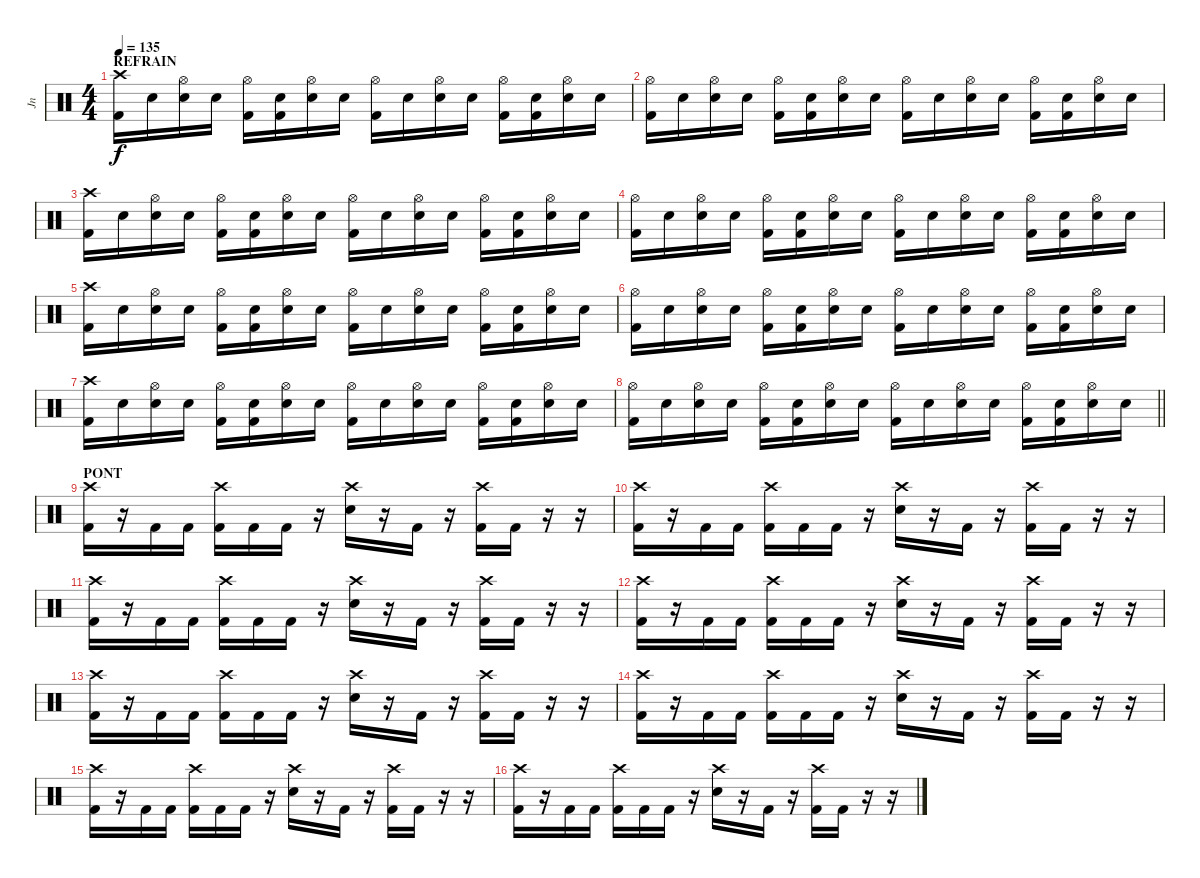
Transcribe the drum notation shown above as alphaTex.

\track ("Jn" "Jn") {instrument percussion}
\staff {score}
\articulation defaults
\ts (4 4)
\section ("" "REFRAIN")
\tempo 135
\clef neutral
\ks c
("Crash high (hit)" "Kick (hit) 2").16{dy f} "Snare (hit)".16 ("Hi-Hat (open)" "Electric Snare (hit)").16 "Snare (hit)".16 ("Hi-Hat (open)" "Kick (hit) 2").16 ("Snare (hit)" "Kick (hit) 2").16 ("Hi-Hat (open)" "Electric Snare (hit)").16 "Snare (hit)".16 ("Hi-Hat (open)" "Kick (hit) 2").16 "Snare (hit)".16 ("Hi-Hat (open)" "Electric Snare (hit)").16 "Snare (hit)".16 ("Hi-Hat (open)" "Kick (hit) 2").16 ("Snare (hit)" "Kick (hit) 2").16 ("Hi-Hat (open)" "Electric Snare (hit)").16 "Snare (hit)".16 |
("Hi-Hat (open)" "Kick (hit) 2").16 "Snare (hit)".16 ("Hi-Hat (open)" "Electric Snare (hit)").16 "Snare (hit)".16 ("Hi-Hat (open)" "Kick (hit) 2").16 ("Snare (hit)" "Kick (hit) 2").16 ("Hi-Hat (open)" "Electric Snare (hit)").16 "Snare (hit)".16 ("Hi-Hat (open)" "Kick (hit) 2").16 "Snare (hit)".16 ("Hi-Hat (open)" "Electric Snare (hit)").16 "Snare (hit)".16 ("Hi-Hat (open)" "Kick (hit) 2").16 ("Snare (hit)" "Kick (hit) 2").16 ("Hi-Hat (open)" "Electric Snare (hit)").16 "Snare (hit)".16 |
("Crash high (hit)" "Kick (hit) 2").16 "Snare (hit)".16 ("Hi-Hat (open)" "Electric Snare (hit)").16 "Snare (hit)".16 ("Hi-Hat (open)" "Kick (hit) 2").16 ("Snare (hit)" "Kick (hit) 2").16 ("Hi-Hat (open)" "Electric Snare (hit)").16 "Snare (hit)".16 ("Hi-Hat (open)" "Kick (hit) 2").16 "Snare (hit)".16 ("Hi-Hat (open)" "Electric Snare (hit)").16 "Snare (hit)".16 ("Hi-Hat (open)" "Kick (hit) 2").16 ("Snare (hit)" "Kick (hit) 2").16 ("Hi-Hat (open)" "Electric Snare (hit)").16 "Snare (hit)".16 |
("Hi-Hat (open)" "Kick (hit) 2").16 "Snare (hit)".16 ("Hi-Hat (open)" "Electric Snare (hit)").16 "Snare (hit)".16 ("Hi-Hat (open)" "Kick (hit) 2").16 ("Snare (hit)" "Kick (hit) 2").16 ("Hi-Hat (open)" "Electric Snare (hit)").16 "Snare (hit)".16 ("Hi-Hat (open)" "Kick (hit) 2").16 "Snare (hit)".16 ("Hi-Hat (open)" "Electric Snare (hit)").16 "Snare (hit)".16 ("Hi-Hat (open)" "Kick (hit) 2").16 ("Snare (hit)" "Kick (hit) 2").16 ("Hi-Hat (open)" "Electric Snare (hit)").16 "Snare (hit)".16 |
("Crash high (hit)" "Kick (hit) 2").16 "Snare (hit)".16 ("Hi-Hat (open)" "Electric Snare (hit)").16 "Snare (hit)".16 ("Hi-Hat (open)" "Kick (hit) 2").16 ("Snare (hit)" "Kick (hit) 2").16 ("Hi-Hat (open)" "Electric Snare (hit)").16 "Snare (hit)".16 ("Hi-Hat (open)" "Kick (hit) 2").16 "Snare (hit)".16 ("Hi-Hat (open)" "Electric Snare (hit)").16 "Snare (hit)".16 ("Hi-Hat (open)" "Kick (hit) 2").16 ("Snare (hit)" "Kick (hit) 2").16 ("Hi-Hat (open)" "Electric Snare (hit)").16 "Snare (hit)".16 |
("Hi-Hat (open)" "Kick (hit) 2").16 "Snare (hit)".16 ("Hi-Hat (open)" "Electric Snare (hit)").16 "Snare (hit)".16 ("Hi-Hat (open)" "Kick (hit) 2").16 ("Snare (hit)" "Kick (hit) 2").16 ("Hi-Hat (open)" "Electric Snare (hit)").16 "Snare (hit)".16 ("Hi-Hat (open)" "Kick (hit) 2").16 "Snare (hit)".16 ("Hi-Hat (open)" "Electric Snare (hit)").16 "Snare (hit)".16 ("Hi-Hat (open)" "Kick (hit) 2").16 ("Snare (hit)" "Kick (hit) 2").16 ("Hi-Hat (open)" "Electric Snare (hit)").16 "Snare (hit)".16 |
("Crash high (hit)" "Kick (hit) 2").16 "Snare (hit)".16 ("Hi-Hat (open)" "Electric Snare (hit)").16 "Snare (hit)".16 ("Hi-Hat (open)" "Kick (hit) 2").16 ("Snare (hit)" "Kick (hit) 2").16 ("Hi-Hat (open)" "Electric Snare (hit)").16 "Snare (hit)".16 ("Hi-Hat (open)" "Kick (hit) 2").16 "Snare (hit)".16 ("Hi-Hat (open)" "Electric Snare (hit)").16 "Snare (hit)".16 ("Hi-Hat (open)" "Kick (hit) 2").16 ("Snare (hit)" "Kick (hit) 2").16 ("Hi-Hat (open)" "Electric Snare (hit)").16 "Snare (hit)".16 |
\barLineRight lightlight
("Hi-Hat (open)" "Kick (hit) 2").16 "Snare (hit)".16 ("Hi-Hat (open)" "Electric Snare (hit)").16 "Snare (hit)".16 ("Hi-Hat (open)" "Kick (hit) 2").16 ("Snare (hit)" "Kick (hit) 2").16 ("Hi-Hat (open)" "Electric Snare (hit)").16 "Snare (hit)".16 ("Hi-Hat (open)" "Kick (hit) 2").16 "Snare (hit)".16 ("Hi-Hat (open)" "Electric Snare (hit)").16 "Snare (hit)".16 ("Hi-Hat (open)" "Kick (hit) 2").16 ("Snare (hit)" "Kick (hit) 2").16 ("Hi-Hat (open)" "Electric Snare (hit)").16 "Snare (hit)".16 |
\section ("" "PONT")
("Crash high (hit)" "Kick (hit) 2").16 r.16 "Kick (hit) 2".16 "Kick (hit) 2".16 ("Crash high (hit)" "Kick (hit) 2").16 "Kick (hit) 2".16 "Kick (hit) 2".16 r.16 ("Crash high (hit)" "Electric Snare (hit)").16 r.16 "Kick (hit) 2".16 r.16 ("Crash high (hit)" "Kick (hit) 2").16 "Kick (hit) 2".16 r.16 r.16 |
("Crash high (hit)" "Kick (hit) 2").16 r.16 "Kick (hit) 2".16 "Kick (hit) 2".16 ("Crash high (hit)" "Kick (hit) 2").16 "Kick (hit) 2".16 "Kick (hit) 2".16 r.16 ("Crash high (hit)" "Electric Snare (hit)").16 r.16 "Kick (hit) 2".16 r.16 ("Crash high (hit)" "Kick (hit) 2").16 "Kick (hit) 2".16 r.16 r.16 |
("Crash high (hit)" "Kick (hit) 2").16 r.16 "Kick (hit) 2".16 "Kick (hit) 2".16 ("Crash high (hit)" "Kick (hit) 2").16 "Kick (hit) 2".16 "Kick (hit) 2".16 r.16 ("Crash high (hit)" "Electric Snare (hit)").16 r.16 "Kick (hit) 2".16 r.16 ("Crash high (hit)" "Kick (hit) 2").16 "Kick (hit) 2".16 r.16 r.16 |
("Crash high (hit)" "Kick (hit) 2").16 r.16 "Kick (hit) 2".16 "Kick (hit) 2".16 ("Crash high (hit)" "Kick (hit) 2").16 "Kick (hit) 2".16 "Kick (hit) 2".16 r.16 ("Crash high (hit)" "Electric Snare (hit)").16 r.16 "Kick (hit) 2".16 r.16 ("Crash high (hit)" "Kick (hit) 2").16 "Kick (hit) 2".16 r.16 r.16 |
("Crash high (hit)" "Kick (hit) 2").16 r.16 "Kick (hit) 2".16 "Kick (hit) 2".16 ("Crash high (hit)" "Kick (hit) 2").16 "Kick (hit) 2".16 "Kick (hit) 2".16 r.16 ("Crash high (hit)" "Electric Snare (hit)").16 r.16 "Kick (hit) 2".16 r.16 ("Crash high (hit)" "Kick (hit) 2").16 "Kick (hit) 2".16 r.16 r.16 |
("Crash high (hit)" "Kick (hit) 2").16 r.16 "Kick (hit) 2".16 "Kick (hit) 2".16 ("Crash high (hit)" "Kick (hit) 2").16 "Kick (hit) 2".16 "Kick (hit) 2".16 r.16 ("Crash high (hit)" "Electric Snare (hit)").16 r.16 "Kick (hit) 2".16 r.16 ("Crash high (hit)" "Kick (hit) 2").16 "Kick (hit) 2".16 r.16 r.16 |
("Crash high (hit)" "Kick (hit) 2").16 r.16 "Kick (hit) 2".16 "Kick (hit) 2".16 ("Crash high (hit)" "Kick (hit) 2").16 "Kick (hit) 2".16 "Kick (hit) 2".16 r.16 ("Crash high (hit)" "Electric Snare (hit)").16 r.16 "Kick (hit) 2".16 r.16 ("Crash high (hit)" "Kick (hit) 2").16 "Kick (hit) 2".16 r.16 r.16 |
("Crash high (hit)" "Kick (hit) 2").16 r.16 "Kick (hit) 2".16 "Kick (hit) 2".16 ("Crash high (hit)" "Kick (hit) 2").16 "Kick (hit) 2".16 "Kick (hit) 2".16 r.16 ("Crash high (hit)" "Electric Snare (hit)").16 r.16 "Kick (hit) 2".16 r.16 ("Crash high (hit)" "Kick (hit) 2").16 "Kick (hit) 2".16 r.16 r.16
